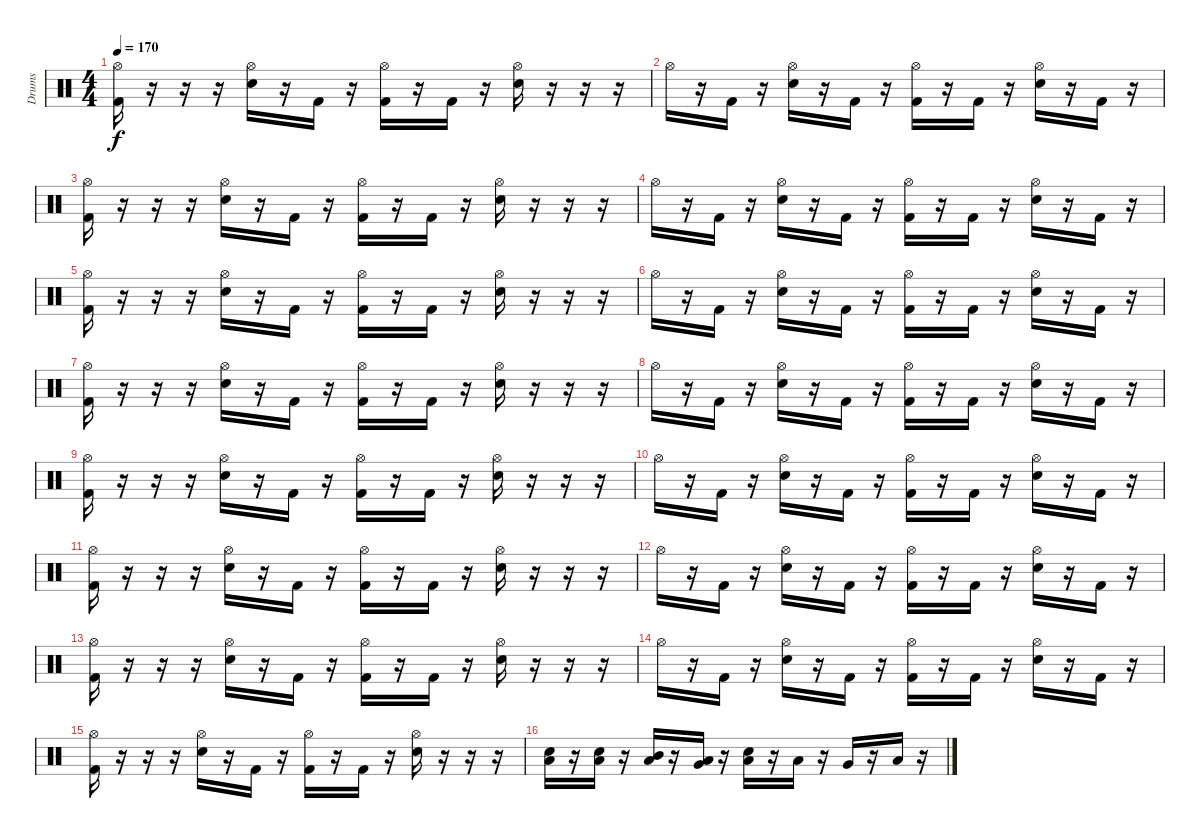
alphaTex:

\track ("Drums" "Drums") {instrument percussion}
\staff {score}
\articulation defaults
\ts (4 4)
\tempo 170
\clef neutral
\ks c
("Hi-Hat (open)" "Kick (hit) 2").16{dy f} r.16 r.16 r.16 ("Hi-Hat (open)" "Snare (hit) 2").16 r.16 "Kick (hit) 2".16 r.16 ("Hi-Hat (open)" "Kick (hit) 2").16 r.16 "Kick (hit) 2".16 r.16 ("Hi-Hat (open)" "Snare (hit) 2").16 r.16 r.16 r.16 |
"Hi-Hat (open)".16 r.16 "Kick (hit) 2".16 r.16 ("Hi-Hat (open)" "Snare (hit) 2").16 r.16 "Kick (hit) 2".16 r.16 ("Hi-Hat (open)" "Kick (hit) 2").16 r.16 "Kick (hit) 2".16 r.16 ("Hi-Hat (open)" "Snare (hit) 2").16 r.16 "Kick (hit) 2".16 r.16 |
("Hi-Hat (open)" "Kick (hit) 2").16 r.16 r.16 r.16 ("Hi-Hat (open)" "Snare (hit) 2").16 r.16 "Kick (hit) 2".16 r.16 ("Hi-Hat (open)" "Kick (hit) 2").16 r.16 "Kick (hit) 2".16 r.16 ("Hi-Hat (open)" "Snare (hit) 2").16 r.16 r.16 r.16 |
"Hi-Hat (open)".16 r.16 "Kick (hit) 2".16 r.16 ("Hi-Hat (open)" "Snare (hit) 2").16 r.16 "Kick (hit) 2".16 r.16 ("Hi-Hat (open)" "Kick (hit) 2").16 r.16 "Kick (hit) 2".16 r.16 ("Hi-Hat (open)" "Snare (hit) 2").16 r.16 "Kick (hit) 2".16 r.16 |
("Hi-Hat (open)" "Kick (hit) 2").16 r.16 r.16 r.16 ("Hi-Hat (open)" "Snare (hit) 2").16 r.16 "Kick (hit) 2".16 r.16 ("Hi-Hat (open)" "Kick (hit) 2").16 r.16 "Kick (hit) 2".16 r.16 ("Hi-Hat (open)" "Snare (hit) 2").16 r.16 r.16 r.16 |
"Hi-Hat (open)".16 r.16 "Kick (hit) 2".16 r.16 ("Hi-Hat (open)" "Snare (hit) 2").16 r.16 "Kick (hit) 2".16 r.16 ("Hi-Hat (open)" "Kick (hit) 2").16 r.16 "Kick (hit) 2".16 r.16 ("Hi-Hat (open)" "Snare (hit) 2").16 r.16 "Kick (hit) 2".16 r.16 |
("Hi-Hat (open)" "Kick (hit) 2").16 r.16 r.16 r.16 ("Hi-Hat (open)" "Snare (hit) 2").16 r.16 "Kick (hit) 2".16 r.16 ("Hi-Hat (open)" "Kick (hit) 2").16 r.16 "Kick (hit) 2".16 r.16 ("Hi-Hat (open)" "Snare (hit) 2").16 r.16 r.16 r.16 |
"Hi-Hat (open)".16 r.16 "Kick (hit) 2".16 r.16 ("Hi-Hat (open)" "Snare (hit) 2").16 r.16 "Kick (hit) 2".16 r.16 ("Hi-Hat (open)" "Kick (hit) 2").16 r.16 "Kick (hit) 2".16 r.16 ("Hi-Hat (open)" "Snare (hit) 2").16 r.16 "Kick (hit) 2".16 r.16 |
("Hi-Hat (open)" "Kick (hit) 2").16 r.16 r.16 r.16 ("Hi-Hat (open)" "Snare (hit) 2").16 r.16 "Kick (hit) 2".16 r.16 ("Hi-Hat (open)" "Kick (hit) 2").16 r.16 "Kick (hit) 2".16 r.16 ("Hi-Hat (open)" "Snare (hit) 2").16 r.16 r.16 r.16 |
"Hi-Hat (open)".16 r.16 "Kick (hit) 2".16 r.16 ("Hi-Hat (open)" "Snare (hit) 2").16 r.16 "Kick (hit) 2".16 r.16 ("Hi-Hat (open)" "Kick (hit) 2").16 r.16 "Kick (hit) 2".16 r.16 ("Hi-Hat (open)" "Snare (hit) 2").16 r.16 "Kick (hit) 2".16 r.16 |
("Hi-Hat (open)" "Kick (hit) 2").16 r.16 r.16 r.16 ("Hi-Hat (open)" "Snare (hit) 2").16 r.16 "Kick (hit) 2".16 r.16 ("Hi-Hat (open)" "Kick (hit) 2").16 r.16 "Kick (hit) 2".16 r.16 ("Hi-Hat (open)" "Snare (hit) 2").16 r.16 r.16 r.16 |
"Hi-Hat (open)".16 r.16 "Kick (hit) 2".16 r.16 ("Hi-Hat (open)" "Snare (hit) 2").16 r.16 "Kick (hit) 2".16 r.16 ("Hi-Hat (open)" "Kick (hit) 2").16 r.16 "Kick (hit) 2".16 r.16 ("Hi-Hat (open)" "Snare (hit) 2").16 r.16 "Kick (hit) 2".16 r.16 |
("Hi-Hat (open)" "Kick (hit) 2").16 r.16 r.16 r.16 ("Hi-Hat (open)" "Snare (hit) 2").16 r.16 "Kick (hit) 2".16 r.16 ("Hi-Hat (open)" "Kick (hit) 2").16 r.16 "Kick (hit) 2".16 r.16 ("Hi-Hat (open)" "Snare (hit) 2").16 r.16 r.16 r.16 |
"Hi-Hat (open)".16 r.16 "Kick (hit) 2".16 r.16 ("Hi-Hat (open)" "Snare (hit) 2").16 r.16 "Kick (hit) 2".16 r.16 ("Hi-Hat (open)" "Kick (hit) 2").16 r.16 "Kick (hit) 2".16 r.16 ("Hi-Hat (open)" "Snare (hit) 2").16 r.16 "Kick (hit) 2".16 r.16 |
("Hi-Hat (open)" "Kick (hit) 2").16 r.16 r.16 r.16 ("Hi-Hat (open)" "Snare (hit) 2").16 r.16 "Kick (hit) 2".16 r.16 ("Hi-Hat (open)" "Kick (hit) 2").16 r.16 "Kick (hit) 2".16 r.16 ("Hi-Hat (open)" "Snare (hit) 2").16 r.16 r.16 r.16 |
("Snare (hit) 2" "Low Tom (hit)").16 r.16 ("Snare (hit) 2" "Low Tom (hit)").16 r.16 ("Mid Tom (hit)" "Low Tom (hit)").16 r.16 ("Very Low Tom (hit)" "Low Tom (hit)").16 r.16 ("Snare (hit) 2" "Low Tom (hit)").16 r.16 "Low Tom (hit)".16 r.16 "Very Low Tom (hit)".16 r.16 "Low Floor Tom (hit)".16 r.16
